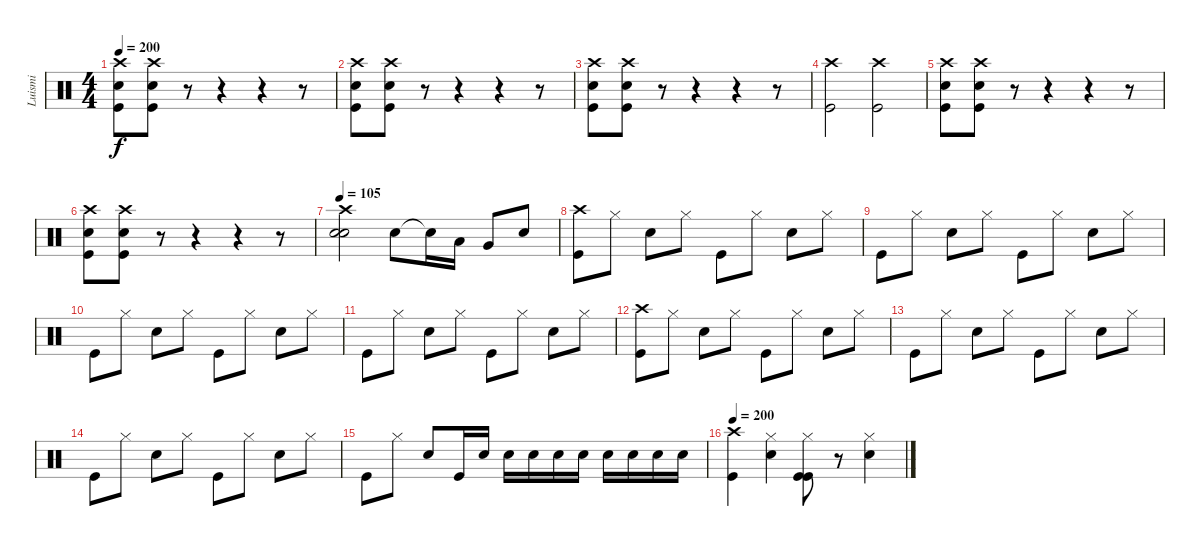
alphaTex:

\track ("Luismi" "Luismi") {instrument percussion}
\staff {score}
\articulation defaults
\ts (4 4)
\tempo 200
\clef neutral
\ks c
("Snare (hit) 2" "Kick (hit)" "Crash high (hit)").8{dy f} ("Snare (hit) 2" "Kick (hit)" "Crash high (hit)").8 r.8 r.4 r.4 r.8 |
("Snare (hit) 2" "Kick (hit)" "Crash high (hit)").8 ("Snare (hit) 2" "Kick (hit)" "Crash high (hit)").8 r.8 r.4 r.4 r.8 |
("Snare (hit) 2" "Kick (hit)" "Crash high (hit)").8 ("Snare (hit) 2" "Kick (hit)" "Crash high (hit)").8 r.8 r.4 r.4 r.8 |
("Crash high (hit)" "Kick (hit)").2 ("Crash high (hit)" "Kick (hit)").2 |
("Snare (hit) 2" "Kick (hit)" "Crash high (hit)").8 ("Snare (hit) 2" "Kick (hit)" "Crash high (hit)").8 r.8 r.4 r.4 r.8 |
("Snare (hit) 2" "Kick (hit)" "Crash high (hit)").8 ("Snare (hit) 2" "Kick (hit)" "Crash high (hit)").8 r.8 r.4 r.4 r.8 |
\tempo 105
("Crash high (hit)" "Electric Snare (hit)" "Snare (hit) 2").2 "Electric Snare (hit)".8 "Snare (hit)"{t}.16 "Low Tom (hit)".16 "Very Low Tom (hit)".8 "Snare (hit) 2".8 |
("Kick (hit)" "Crash high (hit)").8 "Hi-Hat (closed)".8 "Snare (hit) 2".8 "Hi-Hat (closed)".8 "Kick (hit)".8 "Hi-Hat (closed)".8 "Snare (hit) 2".8 "Hi-Hat (closed)".8 |
"Kick (hit)".8 "Hi-Hat (closed)".8 "Snare (hit) 2".8 "Hi-Hat (closed)".8 "Kick (hit)".8 "Hi-Hat (closed)".8 "Snare (hit) 2".8 "Hi-Hat (closed)".8 |
"Kick (hit)".8 "Hi-Hat (closed)".8 "Snare (hit) 2".8 "Hi-Hat (closed)".8 "Kick (hit)".8 "Hi-Hat (closed)".8 "Snare (hit) 2".8 "Hi-Hat (closed)".8 |
"Kick (hit)".8 "Hi-Hat (closed)".8 "Snare (hit) 2".8 "Hi-Hat (closed)".8 "Kick (hit)".8 "Hi-Hat (closed)".8 "Snare (hit) 2".8 "Hi-Hat (closed)".8 |
("Kick (hit)" "Crash high (hit)").8 "Hi-Hat (closed)".8 "Snare (hit) 2".8 "Hi-Hat (closed)".8 "Kick (hit)".8 "Hi-Hat (closed)".8 "Snare (hit) 2".8 "Hi-Hat (closed)".8 |
"Kick (hit)".8 "Hi-Hat (closed)".8 "Snare (hit) 2".8 "Hi-Hat (closed)".8 "Kick (hit)".8 "Hi-Hat (closed)".8 "Snare (hit) 2".8 "Hi-Hat (closed)".8 |
"Kick (hit)".8 "Hi-Hat (closed)".8 "Snare (hit) 2".8 "Hi-Hat (closed)".8 "Kick (hit)".8 "Hi-Hat (closed)".8 "Snare (hit) 2".8 "Hi-Hat (closed)".8 |
"Kick (hit)".8 "Hi-Hat (closed)".8 "Snare (hit) 2".8 "Kick (hit)".16 "Snare (hit) 2".16 "Snare (hit) 2".16 "Snare (hit) 2".16 "Snare (hit) 2".16 "Snare (hit) 2".16 "Snare (hit) 2".16 "Snare (hit) 2".16 "Snare (hit) 2".16 "Snare (hit) 2".16 |
\tempo 200
("Crash high (hit)" "Kick (hit)").4 ("Snare (hit) 2" "Hi-Hat (closed)").4 ("Kick (hit)" "Kick (hit)" "Hi-Hat (closed)").8 r.8 ("Snare (hit) 2" "Hi-Hat (closed)").4
